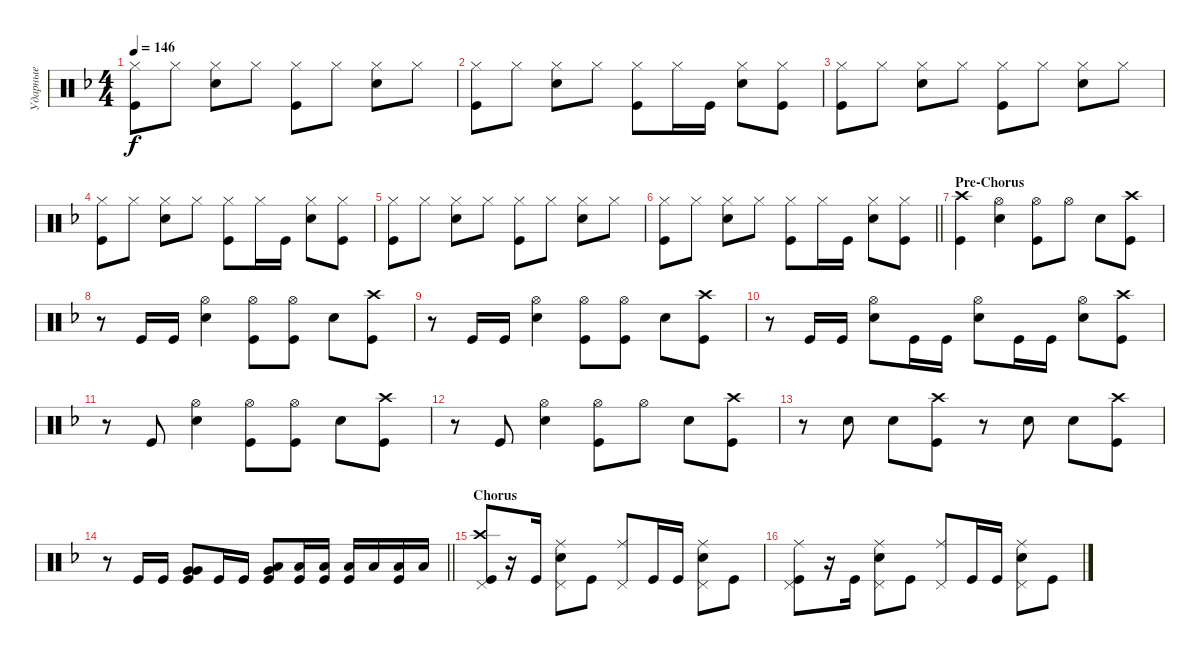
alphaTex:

\track ("Ударные" "Ударные") {instrument percussion}
\staff {score}
\articulation defaults
\ts (4 4)
\tempo 146
\clef neutral
\ks dminor
("Kick (hit)" "Hi-Hat (closed)").8{dy f} "Hi-Hat (closed)".8 ("Hi-Hat (closed)" "Snare (hit) 2").8 "Hi-Hat (closed)".8 ("Hi-Hat (closed)" "Kick (hit)").8 "Hi-Hat (closed)".8 ("Hi-Hat (closed)" "Snare (hit) 2").8 "Hi-Hat (closed)".8 |
("Kick (hit)" "Hi-Hat (closed)").8 "Hi-Hat (closed)".8 ("Hi-Hat (closed)" "Snare (hit) 2").8 "Hi-Hat (closed)".8 ("Hi-Hat (closed)" "Kick (hit)").8 "Hi-Hat (closed)".16 "Kick (hit)".16 ("Hi-Hat (closed)" "Snare (hit) 2").8 ("Hi-Hat (closed)" "Kick (hit)").8 |
("Kick (hit)" "Hi-Hat (closed)").8 "Hi-Hat (closed)".8 ("Hi-Hat (closed)" "Snare (hit) 2").8 "Hi-Hat (closed)".8 ("Hi-Hat (closed)" "Kick (hit)").8 "Hi-Hat (closed)".8 ("Hi-Hat (closed)" "Snare (hit) 2").8 "Hi-Hat (closed)".8 |
("Kick (hit)" "Hi-Hat (closed)").8 "Hi-Hat (closed)".8 ("Hi-Hat (closed)" "Snare (hit) 2").8 "Hi-Hat (closed)".8 ("Hi-Hat (closed)" "Kick (hit)").8 "Hi-Hat (closed)".16 "Kick (hit)".16 ("Hi-Hat (closed)" "Snare (hit) 2").8 ("Hi-Hat (closed)" "Kick (hit)").8 |
("Kick (hit)" "Hi-Hat (closed)").8 "Hi-Hat (closed)".8 ("Hi-Hat (closed)" "Snare (hit) 2").8 "Hi-Hat (closed)".8 ("Hi-Hat (closed)" "Kick (hit)").8 "Hi-Hat (closed)".8 ("Hi-Hat (closed)" "Snare (hit) 2").8 "Hi-Hat (closed)".8 |
\barLineRight lightlight
("Kick (hit)" "Hi-Hat (closed)").8 "Hi-Hat (closed)".8 ("Hi-Hat (closed)" "Snare (hit) 2").8 "Hi-Hat (closed)".8 ("Hi-Hat (closed)" "Kick (hit)").8 "Hi-Hat (closed)".16 "Kick (hit)".16 ("Hi-Hat (closed)" "Snare (hit) 2").8 ("Hi-Hat (closed)" "Kick (hit)").8 |
\section ("" "Pre-Chorus")
("Kick (hit)" "Crash high (hit)").4 ("Snare (hit) 2" "Hi-Hat (open)").4 ("Kick (hit)" "Hi-Hat (open)").8 "Hi-Hat (open)".8 "Snare (hit) 2".8 ("Kick (hit)" "Crash high (hit)").8 |
r.8 "Kick (hit)".16 "Kick (hit)".16 ("Snare (hit) 2" "Hi-Hat (open)").4 ("Kick (hit)" "Hi-Hat (open)").8 ("Kick (hit)" "Hi-Hat (open)").8 "Snare (hit) 2".8 ("Kick (hit)" "Crash high (hit)").8 |
r.8 "Kick (hit)".16 "Kick (hit)".16 ("Snare (hit) 2" "Hi-Hat (open)").4 ("Kick (hit)" "Hi-Hat (open)").8 ("Kick (hit)" "Hi-Hat (open)").8 "Snare (hit) 2".8 ("Kick (hit)" "Crash high (hit)").8 |
r.8 "Kick (hit)".16 "Kick (hit)".16 ("Snare (hit) 2" "Hi-Hat (open)").8 "Kick (hit)".16 "Kick (hit)".16 ("Snare (hit) 2" "Hi-Hat (open)").8 "Kick (hit)".16 "Kick (hit)".16 ("Snare (hit) 2" "Hi-Hat (open)").8 ("Kick (hit)" "Crash high (hit)").8 |
r.8 "Kick (hit)".8 ("Snare (hit) 2" "Hi-Hat (open)").4 ("Kick (hit)" "Hi-Hat (open)").8 ("Hi-Hat (open)" "Kick (hit)").8 "Snare (hit) 2".8 ("Kick (hit)" "Crash high (hit)").8 |
r.8 "Kick (hit)".8 ("Snare (hit) 2" "Hi-Hat (open)").4 ("Kick (hit)" "Hi-Hat (open)").8 "Hi-Hat (open)".8 "Snare (hit) 2".8 ("Kick (hit)" "Crash high (hit)").8 |
r.8 "Snare (hit) 2".8 "Snare (hit) 2".8 ("Kick (hit)" "Crash high (hit)").8 r.8 "Snare (hit) 2".8 "Snare (hit) 2".8 ("Kick (hit)" "Crash high (hit)").8 |
\barLineRight lightlight
r.8 "Kick (hit)".16 "Kick (hit)".16 ("Kick (hit)" "Very Low Tom (hit)" "Very Low Tom (hit)").8{bd 120} "Kick (hit)".16 "Kick (hit)".16{bd 120} ("Kick (hit)" "Very Low Tom (hit)" "Low Floor Tom (hit)").8{bd 60} ("Kick (hit)" "Low Floor Tom (hit)").16 ("Kick (hit)" "Low Floor Tom (hit)").16{bd 120} ("Low Floor Tom (hit)" "Kick (hit)").16 "Low Floor Tom (hit)".16{bd 120} ("Kick (hit)" "Low Floor Tom (hit)").16{bd 120} "Low Floor Tom (hit)".16 |
\section ("" "Chorus")
("Kick (hit)" "Pedal Hi-Hat (hit)" "Crash high (hit)").8 r.16 "Kick (hit)".16 ("Ride (middle)" "Snare (hit) 2" "Pedal Hi-Hat (hit)").8 "Kick (hit)".8 ("Pedal Hi-Hat (hit)" "Ride (middle)").8 "Kick (hit)".16 "Kick (hit)".16 ("Snare (hit) 2" "Pedal Hi-Hat (hit)" "Ride (middle)").8 "Kick (hit)".8 |
("Kick (hit)" "Pedal Hi-Hat (hit)" "Ride (middle)").8 r.16 "Kick (hit)".16 ("Ride (middle)" "Snare (hit) 2" "Pedal Hi-Hat (hit)").8 "Kick (hit)".8 ("Pedal Hi-Hat (hit)" "Ride (middle)").8 "Kick (hit)".16 "Kick (hit)".16 ("Snare (hit) 2" "Pedal Hi-Hat (hit)" "Ride (middle)").8 "Kick (hit)".8
